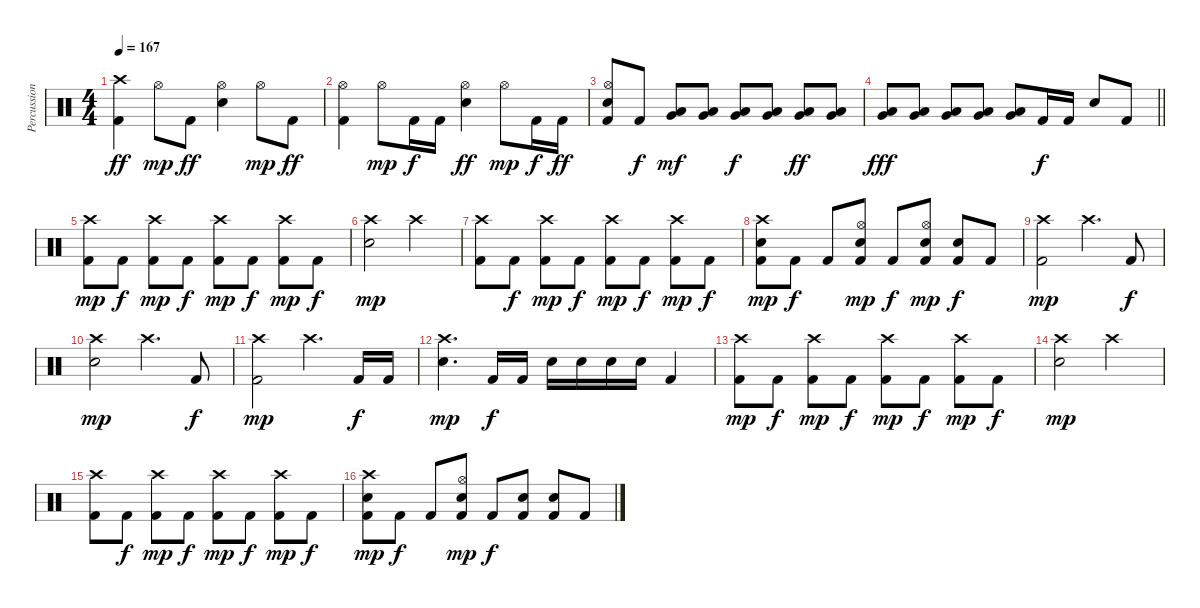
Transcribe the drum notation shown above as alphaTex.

\track ("Percussion" "Percussion") {instrument percussion}
\staff {score}
\articulation defaults
\ts (4 4)
\tempo 167
\clef neutral
\ks c
("Crash high (hit)" "Kick (hit) 2").4{dy ff} "Hi-Hat (open)".8{dy mp} "Kick (hit) 2".8{dy ff} ("Hi-Hat (open)" "Snare (hit) 2").4 "Hi-Hat (open)".8{dy mp} "Kick (hit) 2".8{dy ff} |
("Hi-Hat (open)" "Kick (hit) 2").4 "Hi-Hat (open)".8{dy mp} "Kick (hit) 2".16{dy f} "Kick (hit) 2".16 ("Hi-Hat (open)" "Snare (hit) 2").4{dy ff} "Hi-Hat (open)".8{dy mp} "Kick (hit) 2".16{dy f} "Kick (hit) 2".16{dy ff} |
("Hi-Hat (open)" "Snare (hit) 2" "Kick (hit) 2").8 "Kick (hit) 2".8{dy f} ("Very Low Tom (hit)" "Low Floor Tom (hit)").8{dy mf} ("Very Low Tom (hit)" "Low Floor Tom (hit)").8 ("Very Low Tom (hit)" "Low Floor Tom (hit)").8{dy f} ("Very Low Tom (hit)" "Low Floor Tom (hit)").8 ("Very Low Tom (hit)" "Low Floor Tom (hit)").8{dy ff} ("Very Low Tom (hit)" "Low Floor Tom (hit)").8 |
\barLineRight lightlight
("Very Low Tom (hit)" "Low Floor Tom (hit)").8{dy fff} ("Very Low Tom (hit)" "Low Floor Tom (hit)").8 ("Very Low Tom (hit)" "Low Floor Tom (hit)").8 ("Very Low Tom (hit)" "Low Floor Tom (hit)").8 ("Very Low Tom (hit)" "Low Floor Tom (hit)").8 "Kick (hit) 2".16{dy f} "Kick (hit) 2".16 "Snare (hit) 2".8 "Kick (hit) 2".8 |
("Crash high (hit)" "Kick (hit) 2").8{dy mp} "Kick (hit) 2".8{dy f} ("Crash high (hit)" "Kick (hit) 2").8{dy mp} "Kick (hit) 2".8{dy f} ("Crash high (hit)" "Kick (hit) 2").8{dy mp} "Kick (hit) 2".8{dy f} ("Crash high (hit)" "Kick (hit) 2").8{dy mp} "Kick (hit) 2".8{dy f} |
("Crash high (hit)" "Snare (hit) 2").2{dy mp} "Crash high (hit)".2 |
("Crash high (hit)" "Kick (hit) 2").8 "Kick (hit) 2".8{dy f} ("Crash high (hit)" "Kick (hit) 2").8{dy mp} "Kick (hit) 2".8{dy f} ("Crash high (hit)" "Kick (hit) 2").8{dy mp} "Kick (hit) 2".8{dy f} ("Crash high (hit)" "Kick (hit) 2").8{dy mp} "Kick (hit) 2".8{dy f} |
("Crash high (hit)" "Snare (hit) 2" "Kick (hit) 2").8{dy mp} "Kick (hit) 2".8{dy f} "Kick (hit) 2".8 ("Hi-Hat (open)" "Snare (hit) 2" "Kick (hit) 2").8{dy mp} "Kick (hit) 2".8{dy f} ("Hi-Hat (open)" "Snare (hit) 2" "Kick (hit) 2").8{dy mp} ("Snare (hit) 2" "Kick (hit) 2").8{dy f} "Kick (hit) 2".8 |
("Crash high (hit)" "Kick (hit) 2").2{dy mp} "Crash high (hit)".4{d} "Kick (hit) 2".8{dy f} |
("Crash high (hit)" "Snare (hit) 2").2{dy mp} "Crash high (hit)".4{d} "Kick (hit) 2".8{dy f} |
("Crash high (hit)" "Kick (hit) 2").2{dy mp} "Crash high (hit)".4{d} "Kick (hit) 2".16{dy f} "Kick (hit) 2".16 |
("Crash high (hit)" "Snare (hit) 2").4{d dy mp} "Kick (hit) 2".16{dy f} "Kick (hit) 2".16 "Snare (hit) 2".16 "Snare (hit) 2".16 "Snare (hit) 2".16 "Snare (hit) 2".16 "Kick (hit) 2".4 |
("Crash high (hit)" "Kick (hit) 2").8{dy mp} "Kick (hit) 2".8{dy f} ("Crash high (hit)" "Kick (hit) 2").8{dy mp} "Kick (hit) 2".8{dy f} ("Crash high (hit)" "Kick (hit) 2").8{dy mp} "Kick (hit) 2".8{dy f} ("Crash high (hit)" "Kick (hit) 2").8{dy mp} "Kick (hit) 2".8{dy f} |
("Crash high (hit)" "Snare (hit) 2").2{dy mp} "Crash high (hit)".2 |
("Crash high (hit)" "Kick (hit) 2").8 "Kick (hit) 2".8{dy f} ("Crash high (hit)" "Kick (hit) 2").8{dy mp} "Kick (hit) 2".8{dy f} ("Crash high (hit)" "Kick (hit) 2").8{dy mp} "Kick (hit) 2".8{dy f} ("Crash high (hit)" "Kick (hit) 2").8{dy mp} "Kick (hit) 2".8{dy f} |
("Crash high (hit)" "Snare (hit) 2" "Kick (hit) 2").8{dy mp} "Kick (hit) 2".8{dy f} "Kick (hit) 2".8 ("Hi-Hat (open)" "Snare (hit) 2" "Kick (hit) 2").8{dy mp} "Kick (hit) 2".8{dy f} ("Snare (hit) 2" "Kick (hit) 2").8 ("Snare (hit) 2" "Kick (hit) 2").8 "Kick (hit) 2".8
